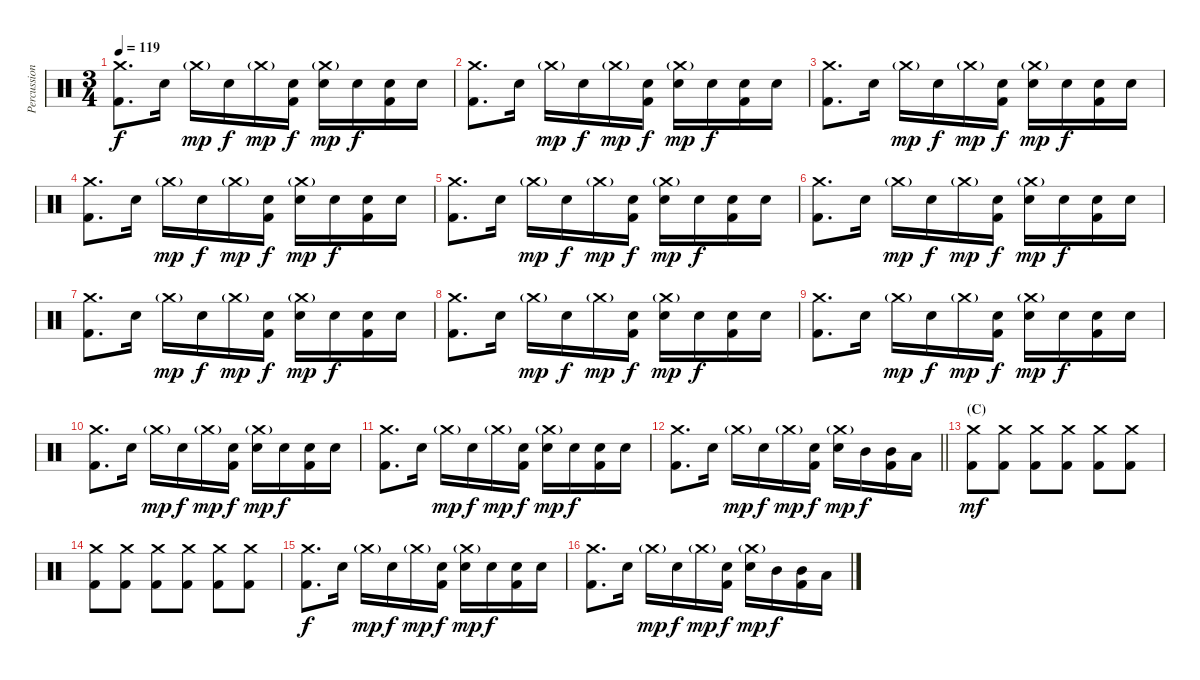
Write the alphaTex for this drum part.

\track ("Percussion 1" "Percussion") {instrument percussion}
\staff {score}
\articulation defaults
\ts (3 4)
\tempo 119
\clef neutral
\ks c
("Crash medium (hit)" "Kick (hit) 2").8{d dy f} "Snare (hit) 2".16 "Crash medium (hit)"{g}.16{dy mp} "Snare (hit) 2".16{dy f} "Crash medium (hit)"{g}.16{dy mp} ("Snare (hit) 2" "Kick (hit) 2").16{dy f} ("Crash medium (hit)"{g} "Snare (hit) 2").16{dy mp} "Snare (hit) 2".16{dy f} ("Snare (hit) 2" "Kick (hit) 2").16 "Snare (hit) 2".16 |
("Crash medium (hit)" "Kick (hit) 2").8{d} "Snare (hit) 2".16 "Crash medium (hit)"{g}.16{dy mp} "Snare (hit) 2".16{dy f} "Crash medium (hit)"{g}.16{dy mp} ("Snare (hit) 2" "Kick (hit) 2").16{dy f} ("Crash medium (hit)"{g} "Snare (hit) 2").16{dy mp} "Snare (hit) 2".16{dy f} ("Snare (hit) 2" "Kick (hit) 2").16 "Snare (hit) 2".16 |
("Crash medium (hit)" "Kick (hit) 2").8{d} "Snare (hit) 2".16 "Crash medium (hit)"{g}.16{dy mp} "Snare (hit) 2".16{dy f} "Crash medium (hit)"{g}.16{dy mp} ("Snare (hit) 2" "Kick (hit) 2").16{dy f} ("Crash medium (hit)"{g} "Snare (hit) 2").16{dy mp} "Snare (hit) 2".16{dy f} ("Snare (hit) 2" "Kick (hit) 2").16 "Snare (hit) 2".16 |
("Crash medium (hit)" "Kick (hit) 2").8{d} "Snare (hit) 2".16 "Crash medium (hit)"{g}.16{dy mp} "Snare (hit) 2".16{dy f} "Crash medium (hit)"{g}.16{dy mp} ("Snare (hit) 2" "Kick (hit) 2").16{dy f} ("Crash medium (hit)"{g} "Snare (hit) 2").16{dy mp} "Snare (hit) 2".16{dy f} ("Snare (hit) 2" "Kick (hit) 2").16 "Snare (hit) 2".16 |
("Crash medium (hit)" "Kick (hit) 2").8{d} "Snare (hit) 2".16 "Crash medium (hit)"{g}.16{dy mp} "Snare (hit) 2".16{dy f} "Crash medium (hit)"{g}.16{dy mp} ("Snare (hit) 2" "Kick (hit) 2").16{dy f} ("Crash medium (hit)"{g} "Snare (hit) 2").16{dy mp} "Snare (hit) 2".16{dy f} ("Snare (hit) 2" "Kick (hit) 2").16 "Snare (hit) 2".16 |
("Crash medium (hit)" "Kick (hit) 2").8{d} "Snare (hit) 2".16 "Crash medium (hit)"{g}.16{dy mp} "Snare (hit) 2".16{dy f} "Crash medium (hit)"{g}.16{dy mp} ("Snare (hit) 2" "Kick (hit) 2").16{dy f} ("Crash medium (hit)"{g} "Snare (hit) 2").16{dy mp} "Snare (hit) 2".16{dy f} ("Snare (hit) 2" "Kick (hit) 2").16 "Snare (hit) 2".16 |
("Crash medium (hit)" "Kick (hit) 2").8{d} "Snare (hit) 2".16 "Crash medium (hit)"{g}.16{dy mp} "Snare (hit) 2".16{dy f} "Crash medium (hit)"{g}.16{dy mp} ("Snare (hit) 2" "Kick (hit) 2").16{dy f} ("Crash medium (hit)"{g} "Snare (hit) 2").16{dy mp} "Snare (hit) 2".16{dy f} ("Snare (hit) 2" "Kick (hit) 2").16 "Snare (hit) 2".16 |
("Crash medium (hit)" "Kick (hit) 2").8{d} "Snare (hit) 2".16 "Crash medium (hit)"{g}.16{dy mp} "Snare (hit) 2".16{dy f} "Crash medium (hit)"{g}.16{dy mp} ("Snare (hit) 2" "Kick (hit) 2").16{dy f} ("Crash medium (hit)"{g} "Snare (hit) 2").16{dy mp} "Snare (hit) 2".16{dy f} ("Snare (hit) 2" "Kick (hit) 2").16 "Snare (hit) 2".16 |
("Crash medium (hit)" "Kick (hit) 2").8{d} "Snare (hit) 2".16 "Crash medium (hit)"{g}.16{dy mp} "Snare (hit) 2".16{dy f} "Crash medium (hit)"{g}.16{dy mp} ("Snare (hit) 2" "Kick (hit) 2").16{dy f} ("Crash medium (hit)"{g} "Snare (hit) 2").16{dy mp} "Snare (hit) 2".16{dy f} ("Snare (hit) 2" "Kick (hit) 2").16 "Snare (hit) 2".16 |
("Crash medium (hit)" "Kick (hit) 2").8{d} "Snare (hit) 2".16 "Crash medium (hit)"{g}.16{dy mp} "Snare (hit) 2".16{dy f} "Crash medium (hit)"{g}.16{dy mp} ("Snare (hit) 2" "Kick (hit) 2").16{dy f} ("Crash medium (hit)"{g} "Snare (hit) 2").16{dy mp} "Snare (hit) 2".16{dy f} ("Snare (hit) 2" "Kick (hit) 2").16 "Snare (hit) 2".16 |
("Crash medium (hit)" "Kick (hit) 2").8{d} "Snare (hit) 2".16 "Crash medium (hit)"{g}.16{dy mp} "Snare (hit) 2".16{dy f} "Crash medium (hit)"{g}.16{dy mp} ("Snare (hit) 2" "Kick (hit) 2").16{dy f} ("Crash medium (hit)"{g} "Snare (hit) 2").16{dy mp} "Snare (hit) 2".16{dy f} ("Snare (hit) 2" "Kick (hit) 2").16 "Snare (hit) 2".16 |
\barLineRight lightlight
("Crash medium (hit)" "Kick (hit) 2").8{d} "Snare (hit) 2".16 "Crash medium (hit)"{g}.16{dy mp} "Snare (hit) 2".16{dy f} "Crash medium (hit)"{g}.16{dy mp} ("Snare (hit) 2" "Kick (hit) 2").16{dy f} ("Crash medium (hit)"{g} "Snare (hit) 2").16{dy mp} "Mid Tom (hit)".16{dy f} ("Mid Tom (hit)" "Kick (hit) 2").16 "Low Tom (hit)".16 |
\section ("" "(C)")
("Crash medium (hit)" "Kick (hit) 2").8{dy mf} ("Crash medium (hit)" "Kick (hit) 2").8 ("Crash medium (hit)" "Kick (hit) 2").8 ("Crash medium (hit)" "Kick (hit) 2").8 ("Crash medium (hit)" "Kick (hit) 2").8 ("Crash medium (hit)" "Kick (hit) 2").8 |
("Crash medium (hit)" "Kick (hit) 2").8 ("Crash medium (hit)" "Kick (hit) 2").8 ("Crash medium (hit)" "Kick (hit) 2").8 ("Crash medium (hit)" "Kick (hit) 2").8 ("Crash medium (hit)" "Kick (hit) 2").8 ("Crash medium (hit)" "Kick (hit) 2").8 |
("Crash medium (hit)" "Kick (hit) 2").8{d dy f} "Snare (hit) 2".16 "Crash medium (hit)"{g}.16{dy mp} "Snare (hit) 2".16{dy f} "Crash medium (hit)"{g}.16{dy mp} ("Snare (hit) 2" "Kick (hit) 2").16{dy f} ("Crash medium (hit)"{g} "Snare (hit) 2").16{dy mp} "Snare (hit) 2".16{dy f} ("Snare (hit) 2" "Kick (hit) 2").16 "Snare (hit) 2".16 |
("Crash medium (hit)" "Kick (hit) 2").8{d} "Snare (hit) 2".16 "Crash medium (hit)"{g}.16{dy mp} "Snare (hit) 2".16{dy f} "Crash medium (hit)"{g}.16{dy mp} ("Snare (hit) 2" "Kick (hit) 2").16{dy f} ("Crash medium (hit)"{g} "Snare (hit) 2").16{dy mp} "Mid Tom (hit)".16{dy f} ("Mid Tom (hit)" "Kick (hit) 2").16 "Low Tom (hit)".16
